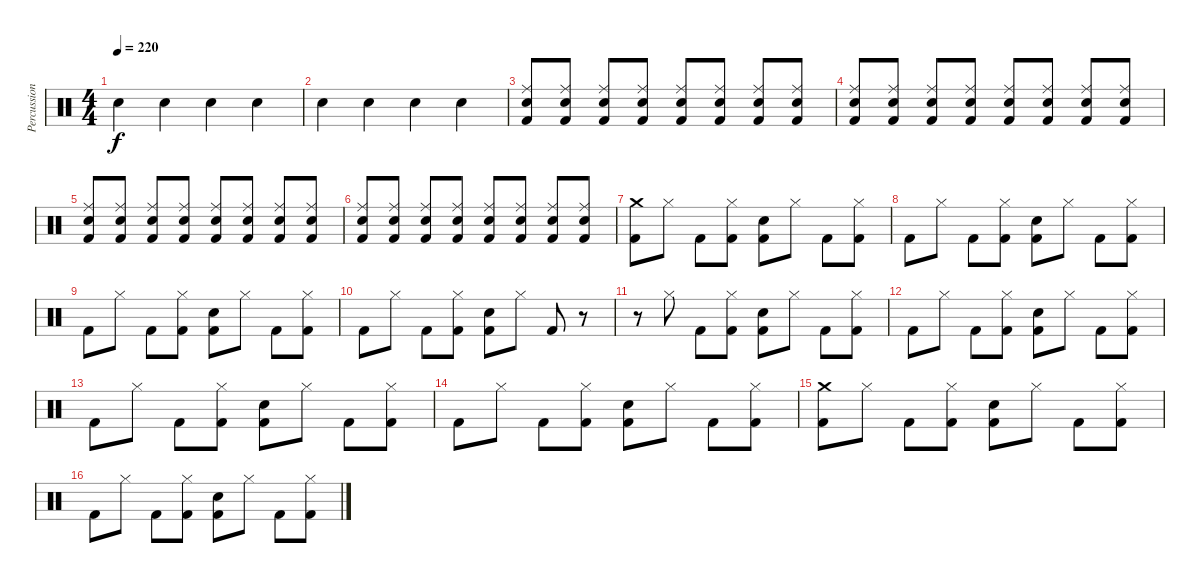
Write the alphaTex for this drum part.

\track ("Percussion" "Percussion") {instrument percussion}
\staff {score}
\articulation defaults
\ts (4 4)
\tempo 220
\clef neutral
\ks c "Snare (hit) 2".4{dy f} "Snare (hit) 2".4 "Snare (hit) 2".4 "Snare (hit) 2".4
|
"Snare (hit) 2".4 "Snare (hit) 2".4 "Snare (hit) 2".4 "Snare (hit) 2".4 |
("Ride (middle)" "Snare (hit) 2" "Kick (hit) 2").8 ("Ride (middle)" "Snare (hit) 2" "Kick (hit) 2").8 ("Ride (middle)" "Snare (hit) 2" "Kick (hit) 2").8 ("Ride (middle)" "Snare (hit) 2" "Kick (hit) 2").8 ("Ride (middle)" "Snare (hit) 2" "Kick (hit) 2").8 ("Ride (middle)" "Snare (hit) 2" "Kick (hit) 2").8 ("Ride (middle)" "Snare (hit) 2" "Kick (hit) 2").8 ("Ride (middle)" "Snare (hit) 2" "Kick (hit) 2").8 |
("Ride (middle)" "Snare (hit) 2" "Kick (hit) 2").8 ("Ride (middle)" "Snare (hit) 2" "Kick (hit) 2").8 ("Ride (middle)" "Snare (hit) 2" "Kick (hit) 2").8 ("Ride (middle)" "Snare (hit) 2" "Kick (hit) 2").8 ("Ride (middle)" "Snare (hit) 2" "Kick (hit) 2").8 ("Ride (middle)" "Snare (hit) 2" "Kick (hit) 2").8 ("Ride (middle)" "Snare (hit) 2" "Kick (hit) 2").8 ("Ride (middle)" "Snare (hit) 2" "Kick (hit) 2").8 |
("Ride (middle)" "Snare (hit) 2" "Kick (hit) 2").8 ("Ride (middle)" "Snare (hit) 2" "Kick (hit) 2").8 ("Ride (middle)" "Snare (hit) 2" "Kick (hit) 2").8 ("Ride (middle)" "Snare (hit) 2" "Kick (hit) 2").8 ("Ride (middle)" "Snare (hit) 2" "Kick (hit) 2").8 ("Ride (middle)" "Snare (hit) 2" "Kick (hit) 2").8 ("Ride (middle)" "Snare (hit) 2" "Kick (hit) 2").8 ("Ride (middle)" "Snare (hit) 2" "Kick (hit) 2").8 |
("Ride (middle)" "Snare (hit) 2" "Kick (hit) 2").8 ("Ride (middle)" "Snare (hit) 2" "Kick (hit) 2").8 ("Ride (middle)" "Snare (hit) 2" "Kick (hit) 2").8 ("Ride (middle)" "Snare (hit) 2" "Kick (hit) 2").8 ("Ride (middle)" "Snare (hit) 2" "Kick (hit) 2").8 ("Ride (middle)" "Snare (hit) 2" "Kick (hit) 2").8 ("Ride (middle)" "Snare (hit) 2" "Kick (hit) 2").8 ("Ride (middle)" "Snare (hit) 2" "Kick (hit) 2").8 |
("Crash medium (hit)" "Kick (hit) 2").8 "Hi-Hat (closed)".8 "Kick (hit) 2".8 ("Hi-Hat (closed)" "Kick (hit) 2").8 ("Snare (hit) 2" "Kick (hit) 2").8 "Hi-Hat (closed)".8 "Kick (hit) 2".8 ("Hi-Hat (closed)" "Kick (hit) 2").8 |
"Kick (hit) 2".8 "Hi-Hat (closed)".8 "Kick (hit) 2".8 ("Hi-Hat (closed)" "Kick (hit) 2").8 ("Snare (hit) 2" "Kick (hit) 2").8 "Hi-Hat (closed)".8 "Kick (hit) 2".8 ("Hi-Hat (closed)" "Kick (hit) 2").8 |
"Kick (hit) 2".8 "Hi-Hat (closed)".8 "Kick (hit) 2".8 ("Hi-Hat (closed)" "Kick (hit) 2").8 ("Snare (hit) 2" "Kick (hit) 2").8 "Hi-Hat (closed)".8 "Kick (hit) 2".8 ("Hi-Hat (closed)" "Kick (hit) 2").8 |
"Kick (hit) 2".8 "Hi-Hat (closed)".8 "Kick (hit) 2".8 ("Hi-Hat (closed)" "Kick (hit) 2").8 ("Snare (hit) 2" "Kick (hit) 2").8 "Hi-Hat (closed)".8 "Kick (hit) 2".8 r.8 |
r.8 "Hi-Hat (closed)".8 "Kick (hit) 2".8 ("Hi-Hat (closed)" "Kick (hit) 2").8 ("Snare (hit) 2" "Kick (hit) 2").8 "Hi-Hat (closed)".8 "Kick (hit) 2".8 ("Hi-Hat (closed)" "Kick (hit) 2").8 |
"Kick (hit) 2".8 "Hi-Hat (closed)".8 "Kick (hit) 2".8 ("Hi-Hat (closed)" "Kick (hit) 2").8 ("Snare (hit) 2" "Kick (hit) 2").8 "Hi-Hat (closed)".8 "Kick (hit) 2".8 ("Hi-Hat (closed)" "Kick (hit) 2").8 |
"Kick (hit) 2".8 "Hi-Hat (closed)".8 "Kick (hit) 2".8 ("Hi-Hat (closed)" "Kick (hit) 2").8 ("Snare (hit) 2" "Kick (hit) 2").8 "Hi-Hat (closed)".8 "Kick (hit) 2".8 ("Hi-Hat (closed)" "Kick (hit) 2").8 |
"Kick (hit) 2".8 "Hi-Hat (closed)".8 "Kick (hit) 2".8 ("Hi-Hat (closed)" "Kick (hit) 2").8 ("Snare (hit) 2" "Kick (hit) 2").8 "Hi-Hat (closed)".8 "Kick (hit) 2".8 ("Hi-Hat (closed)" "Kick (hit) 2").8 |
("Crash medium (hit)" "Kick (hit) 2").8 "Hi-Hat (closed)".8 "Kick (hit) 2".8 ("Hi-Hat (closed)" "Kick (hit) 2").8 ("Snare (hit) 2" "Kick (hit) 2").8 "Hi-Hat (closed)".8 "Kick (hit) 2".8 ("Hi-Hat (closed)" "Kick (hit) 2").8 |
"Kick (hit) 2".8 "Hi-Hat (closed)".8 "Kick (hit) 2".8 ("Hi-Hat (closed)" "Kick (hit) 2").8 ("Snare (hit) 2" "Kick (hit) 2").8 "Hi-Hat (closed)".8 "Kick (hit) 2".8 ("Hi-Hat (closed)" "Kick (hit) 2").8
